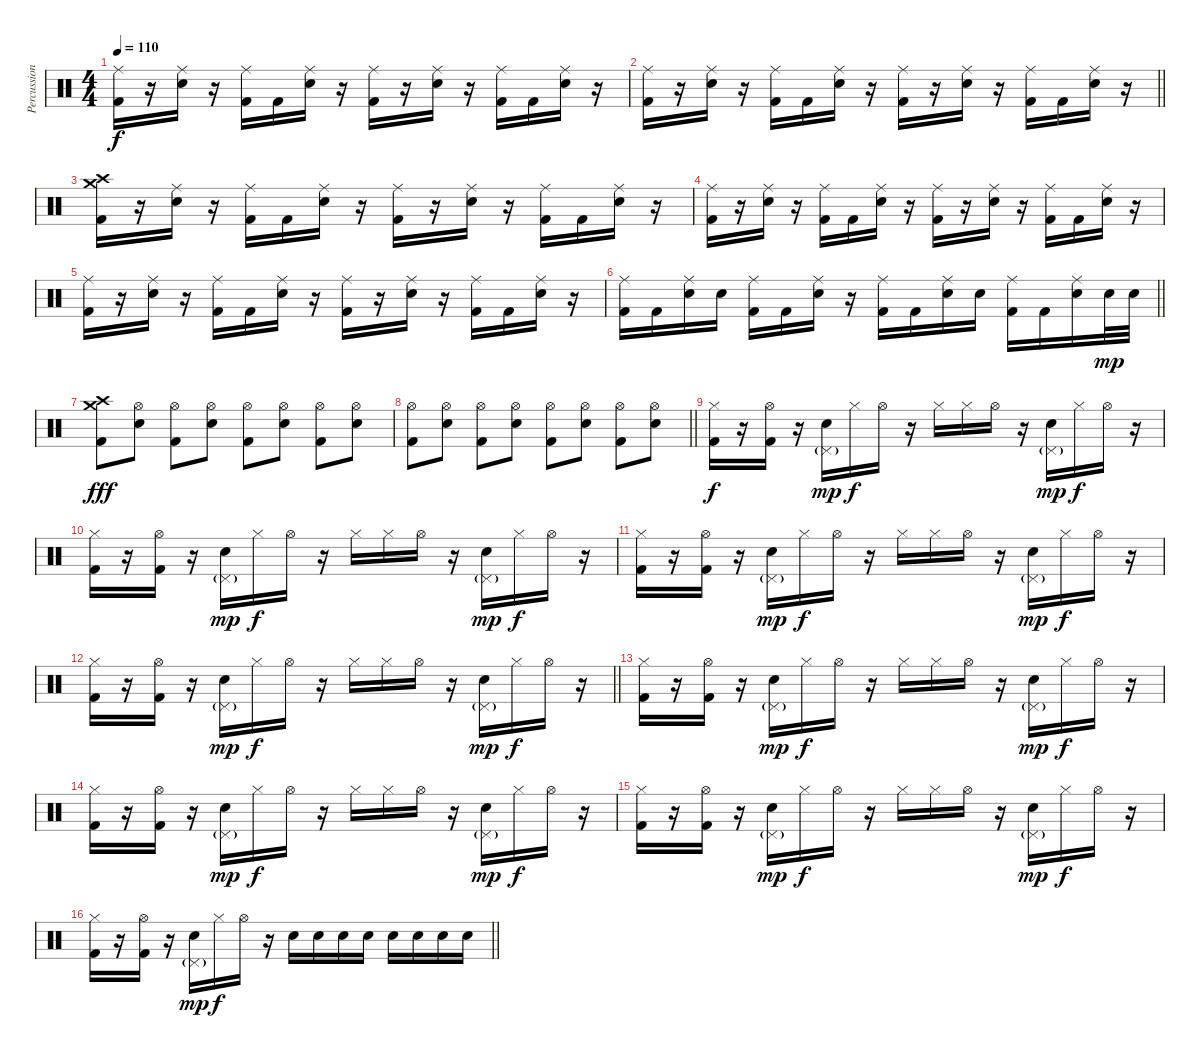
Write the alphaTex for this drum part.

\track ("Percussion" "Percussion") {instrument percussion}
\staff {score}
\articulation defaults
\ts (4 4)
\tempo 110
\clef neutral
\ks c
("Ride (middle)" "Kick (hit) 2").16{dy f} r.16 ("Ride (middle)" "Electric Snare (hit)").16 r.16 ("Ride (middle)" "Kick (hit) 2").16 "Kick (hit) 2".16 ("Ride (middle)" "Electric Snare (hit)").16 r.16 ("Ride (middle)" "Kick (hit) 2").16 r.16 ("Ride (middle)" "Electric Snare (hit)").16 r.16 ("Ride (middle)" "Kick (hit) 2").16 "Kick (hit) 2".16 ("Ride (middle)" "Electric Snare (hit)").16 r.16 |
\barLineRight lightlight
("Ride (middle)" "Kick (hit) 2").16 r.16 ("Ride (middle)" "Electric Snare (hit)").16 r.16 ("Ride (middle)" "Kick (hit) 2").16 "Kick (hit) 2".16 ("Ride (middle)" "Electric Snare (hit)").16 r.16 ("Ride (middle)" "Kick (hit) 2").16 r.16 ("Ride (middle)" "Electric Snare (hit)").16 r.16 ("Ride (middle)" "Kick (hit) 2").16 "Kick (hit) 2".16 ("Ride (middle)" "Electric Snare (hit)").16 r.16 |
("Crash high (hit)" "Kick (hit) 2" "Crash medium (hit)").16 r.16 ("Ride (middle)" "Electric Snare (hit)").16 r.16 ("Ride (middle)" "Kick (hit) 2").16 "Kick (hit) 2".16 ("Ride (middle)" "Electric Snare (hit)").16 r.16 ("Ride (middle)" "Kick (hit) 2").16 r.16 ("Ride (middle)" "Electric Snare (hit)").16 r.16 ("Ride (middle)" "Kick (hit) 2").16 "Kick (hit) 2".16 ("Ride (middle)" "Electric Snare (hit)").16 r.16 |
("Ride (middle)" "Kick (hit) 2").16 r.16 ("Ride (middle)" "Electric Snare (hit)").16 r.16 ("Ride (middle)" "Kick (hit) 2").16 "Kick (hit) 2".16 ("Ride (middle)" "Electric Snare (hit)").16 r.16 ("Ride (middle)" "Kick (hit) 2").16 r.16 ("Ride (middle)" "Electric Snare (hit)").16 r.16 ("Ride (middle)" "Kick (hit) 2").16 "Kick (hit) 2".16 ("Ride (middle)" "Electric Snare (hit)").16 r.16 |
("Ride (middle)" "Kick (hit) 2").16 r.16 ("Ride (middle)" "Electric Snare (hit)").16 r.16 ("Ride (middle)" "Kick (hit) 2").16 "Kick (hit) 2".16 ("Ride (middle)" "Electric Snare (hit)").16 r.16 ("Ride (middle)" "Kick (hit) 2").16 r.16 ("Ride (middle)" "Electric Snare (hit)").16 r.16 ("Ride (middle)" "Kick (hit) 2").16 "Kick (hit) 2".16 ("Ride (middle)" "Electric Snare (hit)").16 r.16 |
\barLineRight lightlight
("Ride (middle)" "Kick (hit) 2").16 "Kick (hit) 2".16 ("Ride (middle)" "Electric Snare (hit)").16 "Electric Snare (hit)".16 ("Ride (middle)" "Kick (hit) 2").16 "Kick (hit) 2".16 ("Ride (middle)" "Electric Snare (hit)").16 r.16 ("Ride (middle)" "Kick (hit) 2").16 "Kick (hit) 2".16 ("Ride (middle)" "Electric Snare (hit)").16 "Electric Snare (hit)".16 ("Ride (middle)" "Kick (hit) 2").16 "Kick (hit) 2".16 ("Ride (middle)" "Electric Snare (hit)").16 "Electric Snare (hit)".32{dy mp} "Electric Snare (hit)".32 |
("Kick (hit) 2" "Crash medium (hit)" "Crash high (hit)").8{dy fff} ("Electric Snare (hit)" "Hi-Hat (open)").8 ("Kick (hit) 2" "Hi-Hat (open)").8 ("Electric Snare (hit)" "Hi-Hat (open)").8 ("Kick (hit) 2" "Hi-Hat (open)").8 ("Electric Snare (hit)" "Hi-Hat (open)").8 ("Kick (hit) 2" "Hi-Hat (open)").8 ("Electric Snare (hit)" "Hi-Hat (open)").8 |
\barLineRight lightlight
("Kick (hit) 2" "Hi-Hat (open)").8 ("Electric Snare (hit)" "Hi-Hat (open)").8 ("Kick (hit) 2" "Hi-Hat (open)").8 ("Electric Snare (hit)" "Hi-Hat (open)").8 ("Kick (hit) 2" "Hi-Hat (open)").8 ("Electric Snare (hit)" "Hi-Hat (open)").8 ("Kick (hit) 2" "Hi-Hat (open)").8 ("Electric Snare (hit)" "Hi-Hat (open)").8 |
("Kick (hit) 2" "Hi-Hat (closed)").16{dy f} r.16 ("Kick (hit) 2" "Hi-Hat (open)").16 r.16 ("Electric Snare (hit)" "Pedal Hi-Hat (hit)"{g}).16{dy mp} "Hi-Hat (closed)".16{dy f} "Hi-Hat (open)".16 r.16 "Hi-Hat (closed)".16 "Hi-Hat (closed)".16 "Hi-Hat (open)".16 r.16 ("Electric Snare (hit)" "Pedal Hi-Hat (hit)"{g}).16{dy mp} "Hi-Hat (closed)".16{dy f} "Hi-Hat (open)".16 r.16 |
("Kick (hit) 2" "Hi-Hat (closed)").16 r.16 ("Kick (hit) 2" "Hi-Hat (open)").16 r.16 ("Electric Snare (hit)" "Pedal Hi-Hat (hit)"{g}).16{dy mp} "Hi-Hat (closed)".16{dy f} "Hi-Hat (open)".16 r.16 "Hi-Hat (closed)".16 "Hi-Hat (closed)".16 "Hi-Hat (open)".16 r.16 ("Electric Snare (hit)" "Pedal Hi-Hat (hit)"{g}).16{dy mp} "Hi-Hat (closed)".16{dy f} "Hi-Hat (open)".16 r.16 |
("Kick (hit) 2" "Hi-Hat (closed)").16 r.16 ("Kick (hit) 2" "Hi-Hat (open)").16 r.16 ("Electric Snare (hit)" "Pedal Hi-Hat (hit)"{g}).16{dy mp} "Hi-Hat (closed)".16{dy f} "Hi-Hat (open)".16 r.16 "Hi-Hat (closed)".16 "Hi-Hat (closed)".16 "Hi-Hat (open)".16 r.16 ("Electric Snare (hit)" "Pedal Hi-Hat (hit)"{g}).16{dy mp} "Hi-Hat (closed)".16{dy f} "Hi-Hat (open)".16 r.16 |
\barLineRight lightlight
("Kick (hit) 2" "Hi-Hat (closed)").16 r.16 ("Kick (hit) 2" "Hi-Hat (open)").16 r.16 ("Electric Snare (hit)" "Pedal Hi-Hat (hit)"{g}).16{dy mp} "Hi-Hat (closed)".16{dy f} "Hi-Hat (open)".16 r.16 "Hi-Hat (closed)".16 "Hi-Hat (closed)".16 "Hi-Hat (open)".16 r.16 ("Electric Snare (hit)" "Pedal Hi-Hat (hit)"{g}).16{dy mp} "Hi-Hat (closed)".16{dy f} "Hi-Hat (open)".16 r.16 |
("Kick (hit) 2" "Hi-Hat (closed)").16 r.16 ("Kick (hit) 2" "Hi-Hat (open)").16 r.16 ("Electric Snare (hit)" "Pedal Hi-Hat (hit)"{g}).16{dy mp} "Hi-Hat (closed)".16{dy f} "Hi-Hat (open)".16 r.16 "Hi-Hat (closed)".16 "Hi-Hat (closed)".16 "Hi-Hat (open)".16 r.16 ("Electric Snare (hit)" "Pedal Hi-Hat (hit)"{g}).16{dy mp} "Hi-Hat (closed)".16{dy f} "Hi-Hat (open)".16 r.16 |
("Kick (hit) 2" "Hi-Hat (closed)").16 r.16 ("Kick (hit) 2" "Hi-Hat (open)").16 r.16 ("Electric Snare (hit)" "Pedal Hi-Hat (hit)"{g}).16{dy mp} "Hi-Hat (closed)".16{dy f} "Hi-Hat (open)".16 r.16 "Hi-Hat (closed)".16 "Hi-Hat (closed)".16 "Hi-Hat (open)".16 r.16 ("Electric Snare (hit)" "Pedal Hi-Hat (hit)"{g}).16{dy mp} "Hi-Hat (closed)".16{dy f} "Hi-Hat (open)".16 r.16 |
("Kick (hit) 2" "Hi-Hat (closed)").16 r.16 ("Kick (hit) 2" "Hi-Hat (open)").16 r.16 ("Electric Snare (hit)" "Pedal Hi-Hat (hit)"{g}).16{dy mp} "Hi-Hat (closed)".16{dy f} "Hi-Hat (open)".16 r.16 "Hi-Hat (closed)".16 "Hi-Hat (closed)".16 "Hi-Hat (open)".16 r.16 ("Electric Snare (hit)" "Pedal Hi-Hat (hit)"{g}).16{dy mp} "Hi-Hat (closed)".16{dy f} "Hi-Hat (open)".16 r.16 |
\barLineRight lightlight
("Kick (hit) 2" "Hi-Hat (closed)").16 r.16 ("Kick (hit) 2" "Hi-Hat (open)").16 r.16 ("Electric Snare (hit)" "Pedal Hi-Hat (hit)"{g}).16{dy mp} "Hi-Hat (closed)".16{dy f} "Hi-Hat (open)".16 r.16 "Electric Snare (hit)".16 "Electric Snare (hit)".16 "Electric Snare (hit)".16 "Electric Snare (hit)".16 "Electric Snare (hit)".16 "Electric Snare (hit)".16 "Electric Snare (hit)".16 "Electric Snare (hit)".16
